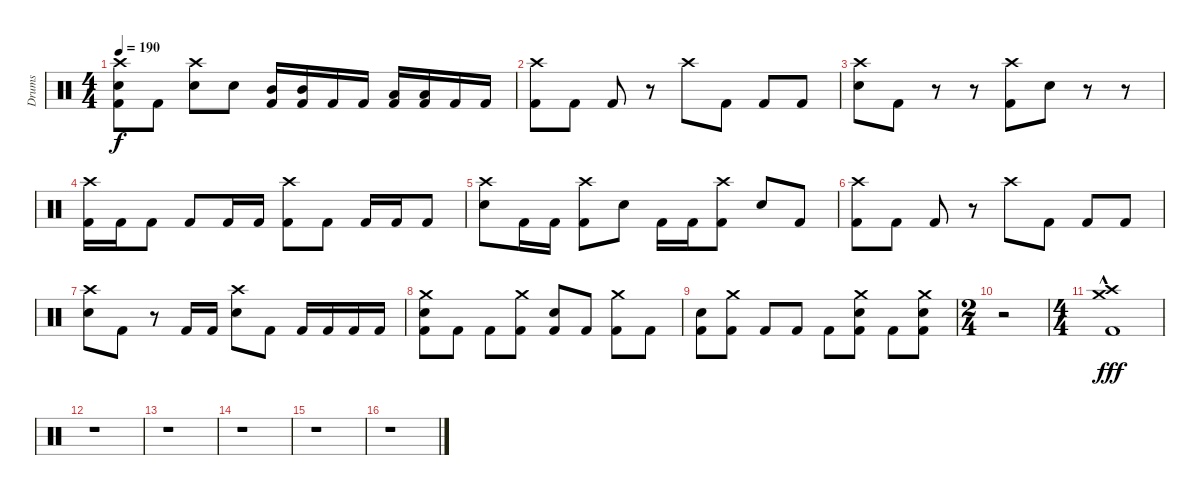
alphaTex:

\track ("Drums" "Drums") {instrument percussion}
\staff {score}
\articulation defaults
\ts (4 4)
\tempo 190
\clef neutral
\ks c
("Crash high (hit)" "Electric Snare (hit)" "Kick (hit) 2").8{dy f} "Kick (hit) 2".8 ("Crash high (hit)" "Electric Snare (hit)").8 "Electric Snare (hit)".8 ("Mid Tom (hit)" "Kick (hit) 2").16 ("Mid Tom (hit)" "Kick (hit) 2").16 "Kick (hit) 2".16 "Kick (hit) 2".16 ("Low Tom (hit)" "Kick (hit) 2").16 ("Low Tom (hit)" "Kick (hit) 2").16 "Kick (hit) 2".16 "Kick (hit) 2".16 |
("Crash high (hit)" "Kick (hit) 2").8 "Kick (hit) 2".8 "Kick (hit) 2".8 r.8 "Crash high (hit)".8 "Kick (hit) 2".8 "Kick (hit) 2".8 "Kick (hit) 2".8 |
("Crash high (hit)" "Electric Snare (hit)").8 "Kick (hit) 2".8 r.8 r.8 ("Crash high (hit)" "Kick (hit) 2").8 "Electric Snare (hit)".8 r.8 r.8 |
("Crash high (hit)" "Kick (hit) 2").16 "Kick (hit) 2".16 "Kick (hit) 2".8 "Kick (hit) 2".8 "Kick (hit) 2".16 "Kick (hit) 2".16 ("Crash high (hit)" "Kick (hit) 2").8 "Kick (hit) 2".8 "Kick (hit) 2".16 "Kick (hit) 2".16 "Kick (hit) 2".8 |
("Crash high (hit)" "Electric Snare (hit)").8 "Kick (hit) 2".16 "Kick (hit) 2".16 ("Crash high (hit)" "Kick (hit) 2").8 "Electric Snare (hit)".8 "Kick (hit) 2".16 "Kick (hit) 2".16 ("Crash high (hit)" "Kick (hit) 2").8 "Electric Snare (hit)".8 "Kick (hit) 2".8 |
("Crash high (hit)" "Kick (hit) 2").8 "Kick (hit) 2".8 "Kick (hit) 2".8 r.8 "Crash high (hit)".8 "Kick (hit) 2".8 "Kick (hit) 2".8 "Kick (hit) 2".8 |
("Crash high (hit)" "Electric Snare (hit)").8 "Kick (hit) 2".8 r.8 "Kick (hit) 2".16 "Kick (hit) 2".16 ("Crash high (hit)" "Electric Snare (hit)").8 "Kick (hit) 2".8 "Kick (hit) 2".16 "Kick (hit) 2".16 "Kick (hit) 2".16 "Kick (hit) 2".16 |
("Crash medium (hit)" "Electric Snare (hit)" "Kick (hit) 2").8 "Kick (hit) 2".8 "Kick (hit) 2".8 ("Crash medium (hit)" "Kick (hit) 2").8 ("Electric Snare (hit)" "Kick (hit) 2").8 "Kick (hit) 2".8 ("Crash medium (hit)" "Kick (hit) 2").8 "Kick (hit) 2".8 |
("Electric Snare (hit)" "Kick (hit) 2").8 ("Crash medium (hit)" "Kick (hit) 2").8 "Kick (hit) 2".8 "Kick (hit) 2".8 "Kick (hit) 2".8 ("Crash medium (hit)" "Electric Snare (hit)" "Kick (hit) 2").8 "Kick (hit) 2".8 ("Crash medium (hit)" "Electric Snare (hit)" "Kick (hit) 2").8 |
\ts (2 4)
r.2 |
\ts (4 4)
("Crash medium (hit)"{hac} "Crash high (hit)"{hac} "Kick (hit) 2"{hac}).1{dy fff} |
r.1 |
r.1 |
r.1 |
r.1 |
r.1
